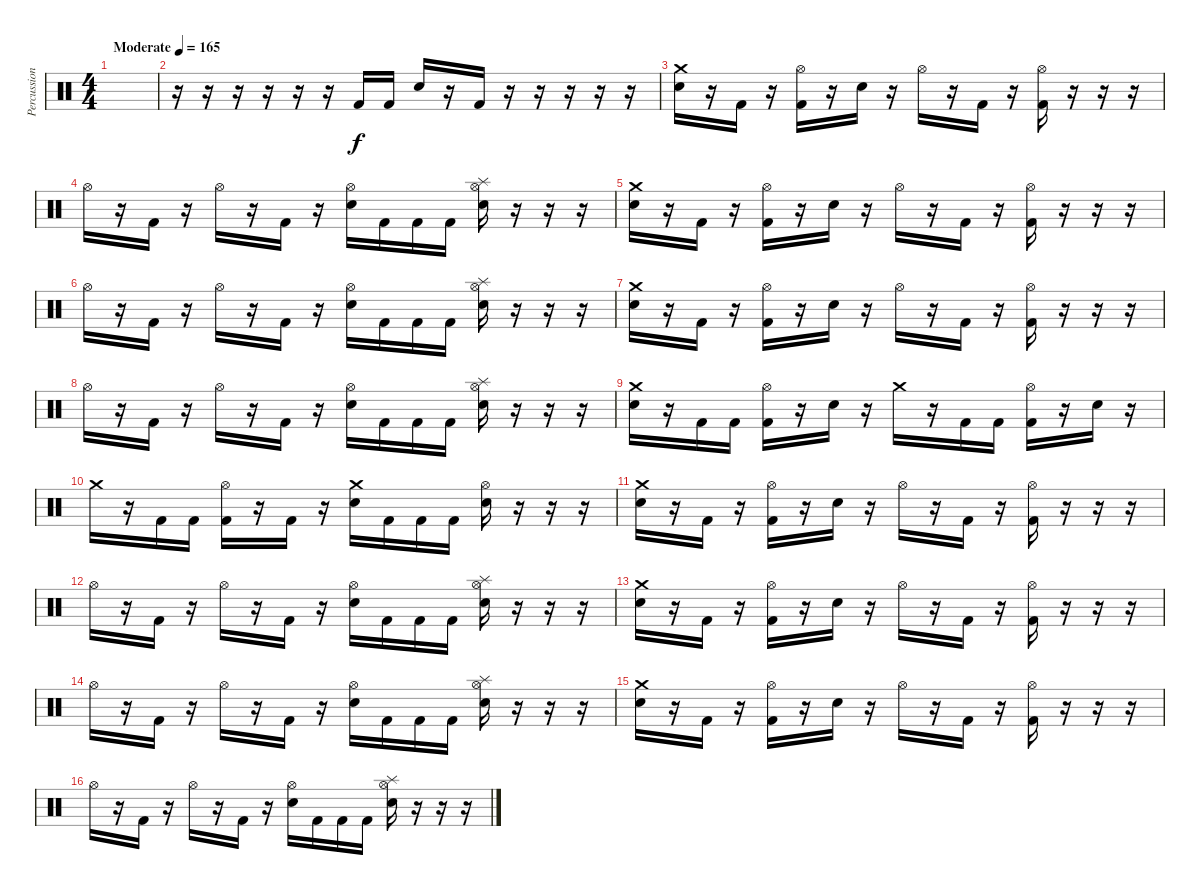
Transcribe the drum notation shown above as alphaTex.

\track ("Percussion" "Percussion") {instrument percussion}
\staff {score}
\articulation defaults
\ts (4 4)
\tempo (165 "Moderate")
\clef neutral
\ks c
|
r.16 r.16 r.16 r.16 r.16 r.16 "Kick (hit) 2".16 "Kick (hit) 2".16 "Electric Snare (hit)".16 r.16 "Kick (hit) 2".16 r.16 r.16 r.16 r.16 r.16 |
("Crash medium (hit)" "Electric Snare (hit)").16 r.16 "Kick (hit) 2".16 r.16 ("Hi-Hat (open)" "Kick (hit) 2").16 r.16 "Electric Snare (hit)".16 r.16 "Hi-Hat (open)".16 r.16 "Kick (hit) 2".16 r.16 ("Hi-Hat (open)" "Kick (hit) 2").16 r.16 r.16 r.16 |
"Hi-Hat (open)".16 r.16 "Kick (hit) 2".16 r.16 "Hi-Hat (open)".16 r.16 "Kick (hit) 2".16 r.16 ("Hi-Hat (open)" "Electric Snare (hit)").16 "Kick (hit) 2".16 "Kick (hit) 2".16 "Kick (hit) 2".16 ("Hi-Hat (open)" "Splash (hit)" "Electric Snare (hit)").16 r.16 r.16 r.16 |
("Crash medium (hit)" "Electric Snare (hit)").16 r.16 "Kick (hit) 2".16 r.16 ("Hi-Hat (open)" "Kick (hit) 2").16 r.16 "Electric Snare (hit)".16 r.16 "Hi-Hat (open)".16 r.16 "Kick (hit) 2".16 r.16 ("Hi-Hat (open)" "Kick (hit) 2").16 r.16 r.16 r.16 |
"Hi-Hat (open)".16 r.16 "Kick (hit) 2".16 r.16 "Hi-Hat (open)".16 r.16 "Kick (hit) 2".16 r.16 ("Hi-Hat (open)" "Electric Snare (hit)").16 "Kick (hit) 2".16 "Kick (hit) 2".16 "Kick (hit) 2".16 ("Hi-Hat (open)" "Splash (hit)" "Electric Snare (hit)").16 r.16 r.16 r.16 |
("Crash medium (hit)" "Electric Snare (hit)").16 r.16 "Kick (hit) 2".16 r.16 ("Hi-Hat (open)" "Kick (hit) 2").16 r.16 "Electric Snare (hit)".16 r.16 "Hi-Hat (open)".16 r.16 "Kick (hit) 2".16 r.16 ("Hi-Hat (open)" "Kick (hit) 2").16 r.16 r.16 r.16 |
"Hi-Hat (open)".16 r.16 "Kick (hit) 2".16 r.16 "Hi-Hat (open)".16 r.16 "Kick (hit) 2".16 r.16 ("Hi-Hat (open)" "Electric Snare (hit)").16 "Kick (hit) 2".16 "Kick (hit) 2".16 "Kick (hit) 2".16 ("Hi-Hat (open)" "Splash (hit)" "Electric Snare (hit)").16 r.16 r.16 r.16 |
("Crash medium (hit)" "Electric Snare (hit)").16 r.16 "Kick (hit) 2".16 "Kick (hit) 2".16 ("Hi-Hat (open)" "Kick (hit) 2").16 r.16 "Electric Snare (hit)".16 r.16 "Crash medium (hit)".16 r.16 "Kick (hit) 2".16 "Kick (hit) 2".16 ("Hi-Hat (open)" "Kick (hit) 2").16 r.16 "Electric Snare (hit)".16 r.16 |
"Crash medium (hit)".16 r.16 "Kick (hit) 2".16 "Kick (hit) 2".16 ("Hi-Hat (open)" "Kick (hit) 2").16 r.16 "Kick (hit) 2".16 r.16 ("Crash medium (hit)" "Electric Snare (hit)").16 "Kick (hit) 2".16 "Kick (hit) 2".16 "Kick (hit) 2".16 ("Hi-Hat (open)" "Electric Snare (hit)").16 r.16 r.16 r.16 |
("Crash medium (hit)" "Electric Snare (hit)").16 r.16 "Kick (hit) 2".16 r.16 ("Hi-Hat (open)" "Kick (hit) 2").16 r.16 "Electric Snare (hit)".16 r.16 "Hi-Hat (open)".16 r.16 "Kick (hit) 2".16 r.16 ("Hi-Hat (open)" "Kick (hit) 2").16 r.16 r.16 r.16 |
"Hi-Hat (open)".16 r.16 "Kick (hit) 2".16 r.16 "Hi-Hat (open)".16 r.16 "Kick (hit) 2".16 r.16 ("Hi-Hat (open)" "Electric Snare (hit)").16 "Kick (hit) 2".16 "Kick (hit) 2".16 "Kick (hit) 2".16 ("Hi-Hat (open)" "Splash (hit)" "Electric Snare (hit)").16 r.16 r.16 r.16 |
("Crash medium (hit)" "Electric Snare (hit)").16 r.16 "Kick (hit) 2".16 r.16 ("Hi-Hat (open)" "Kick (hit) 2").16 r.16 "Electric Snare (hit)".16 r.16 "Hi-Hat (open)".16 r.16 "Kick (hit) 2".16 r.16 ("Hi-Hat (open)" "Kick (hit) 2").16 r.16 r.16 r.16 |
"Hi-Hat (open)".16 r.16 "Kick (hit) 2".16 r.16 "Hi-Hat (open)".16 r.16 "Kick (hit) 2".16 r.16 ("Hi-Hat (open)" "Electric Snare (hit)").16 "Kick (hit) 2".16 "Kick (hit) 2".16 "Kick (hit) 2".16 ("Hi-Hat (open)" "Splash (hit)" "Electric Snare (hit)").16 r.16 r.16 r.16 |
("Crash medium (hit)" "Electric Snare (hit)").16 r.16 "Kick (hit) 2".16 r.16 ("Hi-Hat (open)" "Kick (hit) 2").16 r.16 "Electric Snare (hit)".16 r.16 "Hi-Hat (open)".16 r.16 "Kick (hit) 2".16 r.16 ("Hi-Hat (open)" "Kick (hit) 2").16 r.16 r.16 r.16 |
"Hi-Hat (open)".16 r.16 "Kick (hit) 2".16 r.16 "Hi-Hat (open)".16 r.16 "Kick (hit) 2".16 r.16 ("Hi-Hat (open)" "Electric Snare (hit)").16 "Kick (hit) 2".16 "Kick (hit) 2".16 "Kick (hit) 2".16 ("Hi-Hat (open)" "Splash (hit)" "Electric Snare (hit)").16 r.16 r.16 r.16
